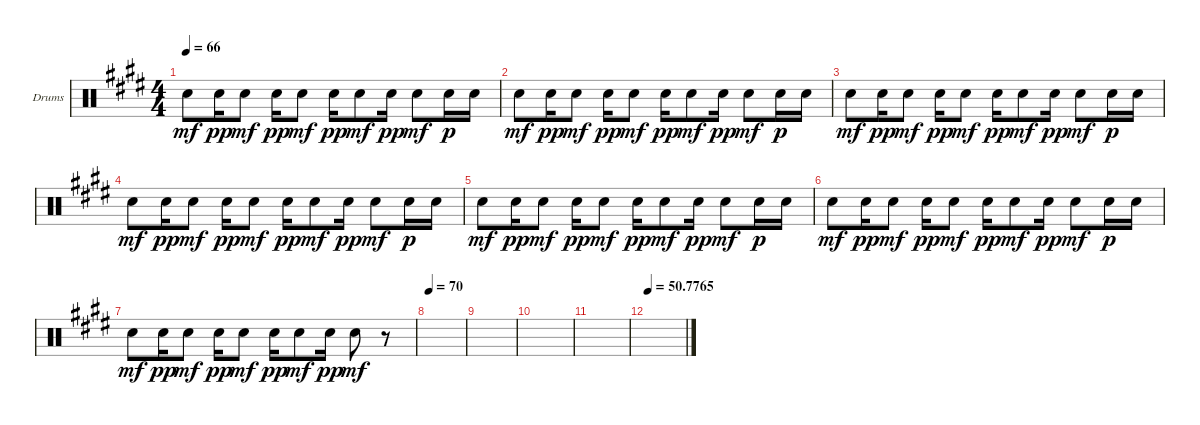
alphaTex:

\defaultSystemsLayout 4
\bracketExtendMode groupsimilarinstruments
\firstSystemTrackNameOrientation horizontal
\otherSystemsTrackNameOrientation horizontal
\track ("Drumkit" "Drums") {instrument percussion}
\staff {score}
\articulation defaults
\ts (4 4)
\tempo 66
\clef neutral
\ks c#minor "Snare (hit) 2".8{dy mf} "Snare (hit) 2".16{dy pp} "Snare (hit) 2".8{dy mf} "Snare (hit) 2".16{dy pp} "Snare (hit) 2".8{dy mf} "Snare (hit) 2".16{dy pp} "Snare (hit) 2".8{dy mf} "Snare (hit) 2".16{dy pp} "Snare (hit) 2".8{dy mf} "Snare (hit) 2".16{dy p} "Snare (hit) 2".16
|
"Snare (hit) 2".8{dy mf} "Snare (hit) 2".16{dy pp} "Snare (hit) 2".8{dy mf} "Snare (hit) 2".16{dy pp} "Snare (hit) 2".8{dy mf} "Snare (hit) 2".16{dy pp} "Snare (hit) 2".8{dy mf} "Snare (hit) 2".16{dy pp} "Snare (hit) 2".8{dy mf} "Snare (hit) 2".16{dy p} "Snare (hit) 2".16 |
"Snare (hit) 2".8{dy mf} "Snare (hit) 2".16{dy pp} "Snare (hit) 2".8{dy mf} "Snare (hit) 2".16{dy pp} "Snare (hit) 2".8{dy mf} "Snare (hit) 2".16{dy pp} "Snare (hit) 2".8{dy mf} "Snare (hit) 2".16{dy pp} "Snare (hit) 2".8{dy mf} "Snare (hit) 2".16{dy p} "Snare (hit) 2".16 |
"Snare (hit) 2".8{dy mf} "Snare (hit) 2".16{dy pp} "Snare (hit) 2".8{dy mf} "Snare (hit) 2".16{dy pp} "Snare (hit) 2".8{dy mf} "Snare (hit) 2".16{dy pp} "Snare (hit) 2".8{dy mf} "Snare (hit) 2".16{dy pp} "Snare (hit) 2".8{dy mf} "Snare (hit) 2".16{dy p} "Snare (hit) 2".16 |
"Snare (hit) 2".8{dy mf} "Snare (hit) 2".16{dy pp} "Snare (hit) 2".8{dy mf} "Snare (hit) 2".16{dy pp} "Snare (hit) 2".8{dy mf} "Snare (hit) 2".16{dy pp} "Snare (hit) 2".8{dy mf} "Snare (hit) 2".16{dy pp} "Snare (hit) 2".8{dy mf} "Snare (hit) 2".16{dy p} "Snare (hit) 2".16 |
"Snare (hit) 2".8{dy mf} "Snare (hit) 2".16{dy pp} "Snare (hit) 2".8{dy mf} "Snare (hit) 2".16{dy pp} "Snare (hit) 2".8{dy mf} "Snare (hit) 2".16{dy pp} "Snare (hit) 2".8{dy mf} "Snare (hit) 2".16{dy pp} "Snare (hit) 2".8{dy mf} "Snare (hit) 2".16{dy p} "Snare (hit) 2".16 |
"Snare (hit) 2".8{dy mf} "Snare (hit) 2".16{dy pp} "Snare (hit) 2".8{dy mf} "Snare (hit) 2".16{dy pp} "Snare (hit) 2".8{dy mf} "Snare (hit) 2".16{dy pp} "Snare (hit) 2".8{dy mf} "Snare (hit) 2".16{dy pp} "Snare (hit) 2".8{dy mf} r.8 |
\tempo 70
|
|
|
|
\tempo
50.7765
